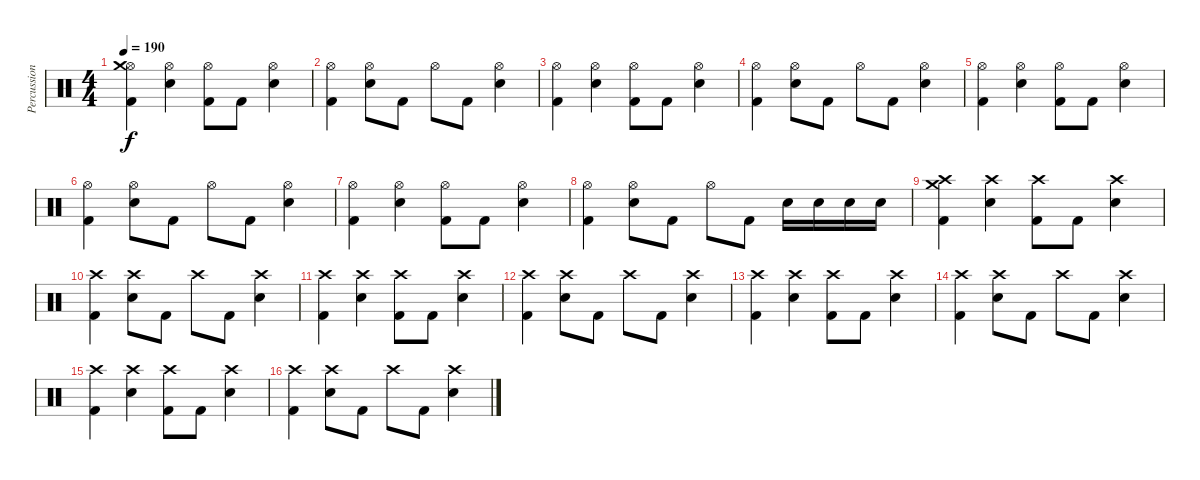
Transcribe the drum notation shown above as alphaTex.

\track ("Percussioni" "Percussion") {instrument percussion}
\staff {score}
\articulation defaults
\ts (4 4)
\tempo 190
\clef neutral
\ks c
("Hi-Hat (open)" "Kick (hit) 2" "Crash medium (hit)").4{dy f} ("Hi-Hat (open)" "Snare (hit) 2").4 ("Hi-Hat (open)" "Kick (hit) 2").8 "Kick (hit) 2".8 ("Hi-Hat (open)" "Snare (hit) 2").4 |
("Hi-Hat (open)" "Kick (hit) 2").4 ("Hi-Hat (open)" "Snare (hit) 2").8 "Kick (hit) 2".8 "Hi-Hat (open)".8 "Kick (hit) 2".8 ("Hi-Hat (open)" "Snare (hit) 2").4 |
("Hi-Hat (open)" "Kick (hit) 2").4 ("Hi-Hat (open)" "Snare (hit) 2").4 ("Hi-Hat (open)" "Kick (hit) 2").8 "Kick (hit) 2".8 ("Hi-Hat (open)" "Snare (hit) 2").4 |
("Hi-Hat (open)" "Kick (hit) 2").4 ("Hi-Hat (open)" "Snare (hit) 2").8 "Kick (hit) 2".8 "Hi-Hat (open)".8 "Kick (hit) 2".8 ("Hi-Hat (open)" "Snare (hit) 2").4 |
("Hi-Hat (open)" "Kick (hit) 2").4 ("Hi-Hat (open)" "Snare (hit) 2").4 ("Hi-Hat (open)" "Kick (hit) 2").8 "Kick (hit) 2".8 ("Hi-Hat (open)" "Snare (hit) 2").4 |
("Hi-Hat (open)" "Kick (hit) 2").4 ("Hi-Hat (open)" "Snare (hit) 2").8 "Kick (hit) 2".8 "Hi-Hat (open)".8 "Kick (hit) 2".8 ("Hi-Hat (open)" "Snare (hit) 2").4 |
("Hi-Hat (open)" "Kick (hit) 2").4 ("Hi-Hat (open)" "Snare (hit) 2").4 ("Hi-Hat (open)" "Kick (hit) 2").8 "Kick (hit) 2".8 ("Hi-Hat (open)" "Snare (hit) 2").4 |
("Hi-Hat (open)" "Kick (hit) 2").4 ("Hi-Hat (open)" "Snare (hit) 2").8 "Kick (hit) 2".8 "Hi-Hat (open)".8 "Kick (hit) 2".8 "Snare (hit) 2".16 "Snare (hit) 2".16 "Snare (hit) 2".16 "Snare (hit) 2".16 |
("Crash high (hit)" "Kick (hit) 2" "Crash medium (hit)").4 ("Crash high (hit)" "Snare (hit) 2").4 ("Crash high (hit)" "Kick (hit) 2").8 "Kick (hit) 2".8 ("Crash high (hit)" "Snare (hit) 2").4 |
("Crash high (hit)" "Kick (hit) 2").4 ("Crash high (hit)" "Snare (hit) 2").8 "Kick (hit) 2".8 "Crash high (hit)".8 "Kick (hit) 2".8 ("Crash high (hit)" "Snare (hit) 2").4 |
("Crash high (hit)" "Kick (hit) 2").4 ("Crash high (hit)" "Snare (hit) 2").4 ("Crash high (hit)" "Kick (hit) 2").8 "Kick (hit) 2".8 ("Crash high (hit)" "Snare (hit) 2").4 |
("Crash high (hit)" "Kick (hit) 2").4 ("Crash high (hit)" "Snare (hit) 2").8 "Kick (hit) 2".8 "Crash high (hit)".8 "Kick (hit) 2".8 ("Crash high (hit)" "Snare (hit) 2").4 |
("Crash high (hit)" "Kick (hit) 2").4 ("Crash high (hit)" "Snare (hit) 2").4 ("Crash high (hit)" "Kick (hit) 2").8 "Kick (hit) 2".8 ("Crash high (hit)" "Snare (hit) 2").4 |
("Crash high (hit)" "Kick (hit) 2").4 ("Crash high (hit)" "Snare (hit) 2").8 "Kick (hit) 2".8 "Crash high (hit)".8 "Kick (hit) 2".8 ("Crash high (hit)" "Snare (hit) 2").4 |
("Crash high (hit)" "Kick (hit) 2").4 ("Crash high (hit)" "Snare (hit) 2").4 ("Crash high (hit)" "Kick (hit) 2").8 "Kick (hit) 2".8 ("Crash high (hit)" "Snare (hit) 2").4 |
("Crash high (hit)" "Kick (hit) 2").4 ("Crash high (hit)" "Snare (hit) 2").8 "Kick (hit) 2".8 "Crash high (hit)".8 "Kick (hit) 2".8 ("Crash high (hit)" "Snare (hit) 2").4
